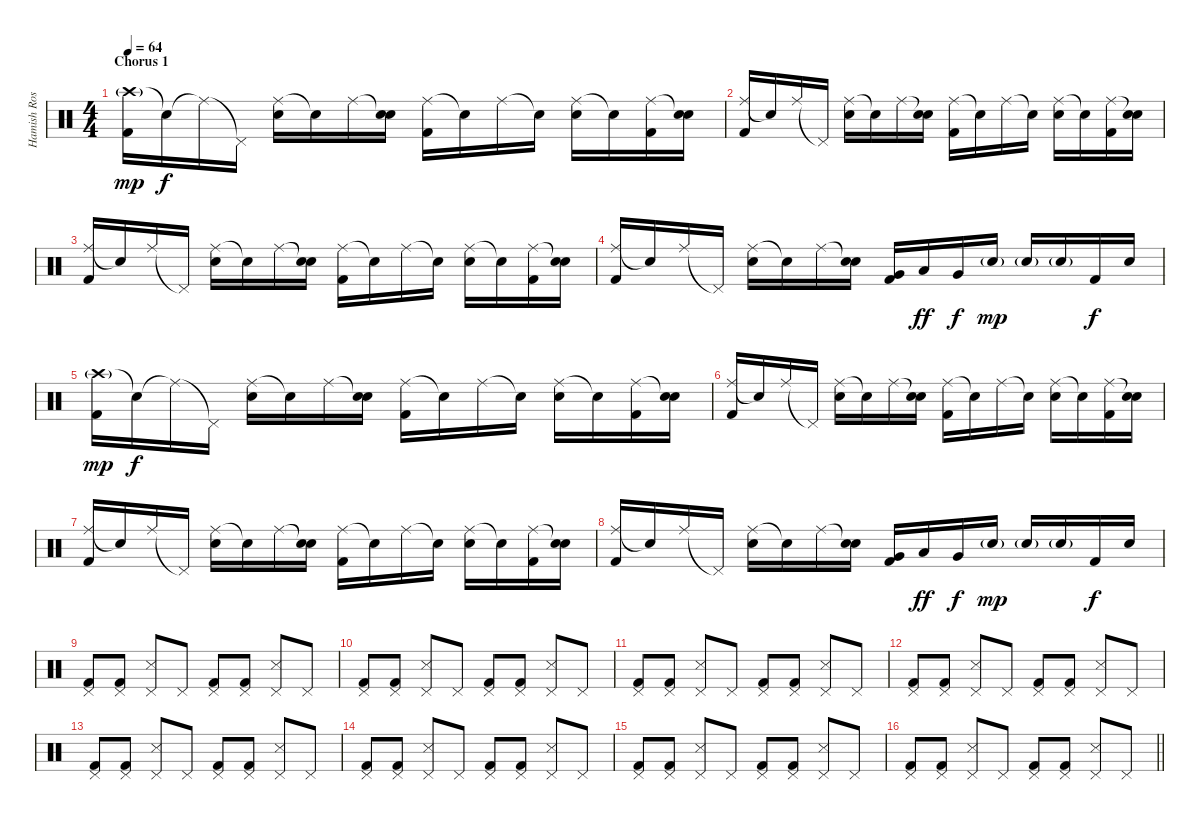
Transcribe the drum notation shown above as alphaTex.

\track ("Hamish Rosser" "Hamish Ros") {instrument percussion}
\staff {score}
\articulation defaults
\ts (4 4)
\section ("" "Chorus 1")
\tempo 64
\clef neutral
\ks c
("Crash high (hit)"{g} "Kick (hit) 2").16{dy mp} "Snare (hit)"{t}.16{dy f} "Ride (middle)"{t}.16 "Pedal Hi-Hat (hit)"{t}.16 ("Ride (middle)" "Electric Snare (hit)").16 "Snare (hit)"{t}.16 "Ride (middle)".16 ("Snare (hit)"{t} "Electric Snare (hit)").16 ("Ride (middle)" "Kick (hit) 2").16 "Snare (hit)"{t}.16 "Ride (middle)".16 "Snare (hit)"{t}.16 ("Ride (middle)" "Electric Snare (hit)").16 "Snare (hit)"{t}.16 ("Ride (middle)" "Kick (hit) 2").16 ("Snare (hit)"{t} "Electric Snare (hit)").16 |
("Ride (middle)" "Kick (hit) 2").16 "Snare (hit)"{t}.16 "Ride (middle)".16 "Pedal Hi-Hat (hit)"{t}.16 ("Ride (middle)" "Electric Snare (hit)").16 "Snare (hit)"{t}.16 "Ride (middle)".16 ("Snare (hit)"{t} "Electric Snare (hit)").16 ("Ride (middle)" "Kick (hit) 2").16 "Snare (hit)"{t}.16 "Ride (middle)".16 "Snare (hit)"{t}.16 ("Ride (middle)" "Electric Snare (hit)").16 "Snare (hit)"{t}.16 ("Ride (middle)" "Kick (hit) 2").16 ("Snare (hit)"{t} "Electric Snare (hit)").16 |
("Ride (middle)" "Kick (hit) 2").16 "Snare (hit)"{t}.16 "Ride (middle)".16 "Pedal Hi-Hat (hit)"{t}.16 ("Ride (middle)" "Electric Snare (hit)").16 "Snare (hit)"{t}.16 "Ride (middle)".16 ("Snare (hit)"{t} "Electric Snare (hit)").16 ("Ride (middle)" "Kick (hit) 2").16 "Snare (hit)"{t}.16 "Ride (middle)".16 "Snare (hit)"{t}.16 ("Ride (middle)" "Electric Snare (hit)").16 "Snare (hit)"{t}.16 ("Ride (middle)" "Kick (hit) 2").16 ("Snare (hit)"{t} "Electric Snare (hit)").16 |
("Ride (middle)" "Kick (hit) 2").16 "Snare (hit)"{t}.16 "Ride (middle)".16 "Pedal Hi-Hat (hit)"{t}.16 ("Ride (middle)" "Electric Snare (hit)").16 "Snare (hit)"{t}.16 "Ride (middle)".16 ("Snare (hit)"{t} "Electric Snare (hit)").16 ("Very Low Tom (hit)" "Kick (hit) 2").16 "Low Tom (hit)".16{dy ff} "Very Low Tom (hit)".16{dy f} "Electric Snare (hit)"{g}.16{dy mp} "Electric Snare (hit)"{g}.16 "Electric Snare (hit)"{g}.16 "Kick (hit) 2".16{dy f} "Electric Snare (hit)".16 |
("Crash high (hit)"{g} "Kick (hit) 2").16{dy mp} "Snare (hit)"{t}.16{dy f} "Ride (middle)"{t}.16 "Pedal Hi-Hat (hit)"{t}.16 ("Ride (middle)" "Electric Snare (hit)").16 "Snare (hit)"{t}.16 "Ride (middle)".16 ("Snare (hit)"{t} "Electric Snare (hit)").16 ("Ride (middle)" "Kick (hit) 2").16 "Snare (hit)"{t}.16 "Ride (middle)".16 "Snare (hit)"{t}.16 ("Ride (middle)" "Electric Snare (hit)").16 "Snare (hit)"{t}.16 ("Ride (middle)" "Kick (hit) 2").16 ("Snare (hit)"{t} "Electric Snare (hit)").16 |
("Ride (middle)" "Kick (hit) 2").16 "Snare (hit)"{t}.16 "Ride (middle)".16 "Pedal Hi-Hat (hit)"{t}.16 ("Ride (middle)" "Electric Snare (hit)").16 "Snare (hit)"{t}.16 "Ride (middle)".16 ("Snare (hit)"{t} "Electric Snare (hit)").16 ("Ride (middle)" "Kick (hit) 2").16 "Snare (hit)"{t}.16 "Ride (middle)".16 "Snare (hit)"{t}.16 ("Ride (middle)" "Electric Snare (hit)").16 "Snare (hit)"{t}.16 ("Ride (middle)" "Kick (hit) 2").16 ("Snare (hit)"{t} "Electric Snare (hit)").16 |
("Ride (middle)" "Kick (hit) 2").16 "Snare (hit)"{t}.16 "Ride (middle)".16 "Pedal Hi-Hat (hit)"{t}.16 ("Ride (middle)" "Electric Snare (hit)").16 "Snare (hit)"{t}.16 "Ride (middle)".16 ("Snare (hit)"{t} "Electric Snare (hit)").16 ("Ride (middle)" "Kick (hit) 2").16 "Snare (hit)"{t}.16 "Ride (middle)".16 "Snare (hit)"{t}.16 ("Ride (middle)" "Electric Snare (hit)").16 "Snare (hit)"{t}.16 ("Ride (middle)" "Kick (hit) 2").16 ("Snare (hit)"{t} "Electric Snare (hit)").16 |
("Ride (middle)" "Kick (hit) 2").16 "Snare (hit)"{t}.16 "Ride (middle)".16 "Pedal Hi-Hat (hit)"{t}.16 ("Ride (middle)" "Electric Snare (hit)").16 "Snare (hit)"{t}.16 "Ride (middle)".16 ("Snare (hit)"{t} "Electric Snare (hit)").16 ("Very Low Tom (hit)" "Kick (hit) 2").16 "Low Tom (hit)".16{dy ff} "Very Low Tom (hit)".16{dy f} "Electric Snare (hit)"{g}.16{dy mp} "Electric Snare (hit)"{g}.16 "Electric Snare (hit)"{g}.16 "Kick (hit) 2".16{dy f} "Electric Snare (hit)".16 |
("Pedal Hi-Hat (hit)" "Kick (hit) 2").8 ("Pedal Hi-Hat (hit)" "Kick (hit) 2").8 ("Pedal Hi-Hat (hit)" "Snare (side stick) 3").8 "Pedal Hi-Hat (hit)".8 ("Pedal Hi-Hat (hit)" "Kick (hit) 2").8 ("Pedal Hi-Hat (hit)" "Kick (hit) 2").8 ("Pedal Hi-Hat (hit)" "Snare (side stick) 3").8 "Pedal Hi-Hat (hit)".8 |
("Pedal Hi-Hat (hit)" "Kick (hit) 2").8 ("Pedal Hi-Hat (hit)" "Kick (hit) 2").8 ("Pedal Hi-Hat (hit)" "Snare (side stick) 3").8 "Pedal Hi-Hat (hit)".8 ("Pedal Hi-Hat (hit)" "Kick (hit) 2").8 ("Pedal Hi-Hat (hit)" "Kick (hit) 2").8 ("Pedal Hi-Hat (hit)" "Snare (side stick) 3").8 "Pedal Hi-Hat (hit)".8 |
("Pedal Hi-Hat (hit)" "Kick (hit) 2").8 ("Pedal Hi-Hat (hit)" "Kick (hit) 2").8 ("Pedal Hi-Hat (hit)" "Snare (side stick) 3").8 "Pedal Hi-Hat (hit)".8 ("Pedal Hi-Hat (hit)" "Kick (hit) 2").8 ("Pedal Hi-Hat (hit)" "Kick (hit) 2").8 ("Pedal Hi-Hat (hit)" "Snare (side stick) 3").8 "Pedal Hi-Hat (hit)".8 |
("Pedal Hi-Hat (hit)" "Kick (hit) 2").8 ("Pedal Hi-Hat (hit)" "Kick (hit) 2").8 ("Pedal Hi-Hat (hit)" "Snare (side stick) 3").8 "Pedal Hi-Hat (hit)".8 ("Pedal Hi-Hat (hit)" "Kick (hit) 2").8 ("Pedal Hi-Hat (hit)" "Kick (hit) 2").8 ("Pedal Hi-Hat (hit)" "Snare (side stick) 3").8 "Pedal Hi-Hat (hit)".8 |
("Pedal Hi-Hat (hit)" "Kick (hit) 2").8 ("Pedal Hi-Hat (hit)" "Kick (hit) 2").8 ("Pedal Hi-Hat (hit)" "Snare (side stick) 3").8 "Pedal Hi-Hat (hit)".8 ("Pedal Hi-Hat (hit)" "Kick (hit) 2").8 ("Pedal Hi-Hat (hit)" "Kick (hit) 2").8 ("Pedal Hi-Hat (hit)" "Snare (side stick) 3").8 "Pedal Hi-Hat (hit)".8 |
("Pedal Hi-Hat (hit)" "Kick (hit) 2").8 ("Pedal Hi-Hat (hit)" "Kick (hit) 2").8 ("Pedal Hi-Hat (hit)" "Snare (side stick) 3").8 "Pedal Hi-Hat (hit)".8 ("Pedal Hi-Hat (hit)" "Kick (hit) 2").8 ("Pedal Hi-Hat (hit)" "Kick (hit) 2").8 ("Pedal Hi-Hat (hit)" "Snare (side stick) 3").8 "Pedal Hi-Hat (hit)".8 |
("Pedal Hi-Hat (hit)" "Kick (hit) 2").8 ("Pedal Hi-Hat (hit)" "Kick (hit) 2").8 ("Pedal Hi-Hat (hit)" "Snare (side stick) 3").8 "Pedal Hi-Hat (hit)".8 ("Pedal Hi-Hat (hit)" "Kick (hit) 2").8 ("Pedal Hi-Hat (hit)" "Kick (hit) 2").8 ("Pedal Hi-Hat (hit)" "Snare (side stick) 3").8 "Pedal Hi-Hat (hit)".8 |
\barLineRight lightlight
("Pedal Hi-Hat (hit)" "Kick (hit) 2").8 ("Pedal Hi-Hat (hit)" "Kick (hit) 2").8 ("Pedal Hi-Hat (hit)" "Snare (side stick) 3").8 "Pedal Hi-Hat (hit)".8 ("Pedal Hi-Hat (hit)" "Kick (hit) 2").8 ("Pedal Hi-Hat (hit)" "Kick (hit) 2").8 ("Pedal Hi-Hat (hit)" "Snare (side stick) 3").8 "Pedal Hi-Hat (hit)".8
